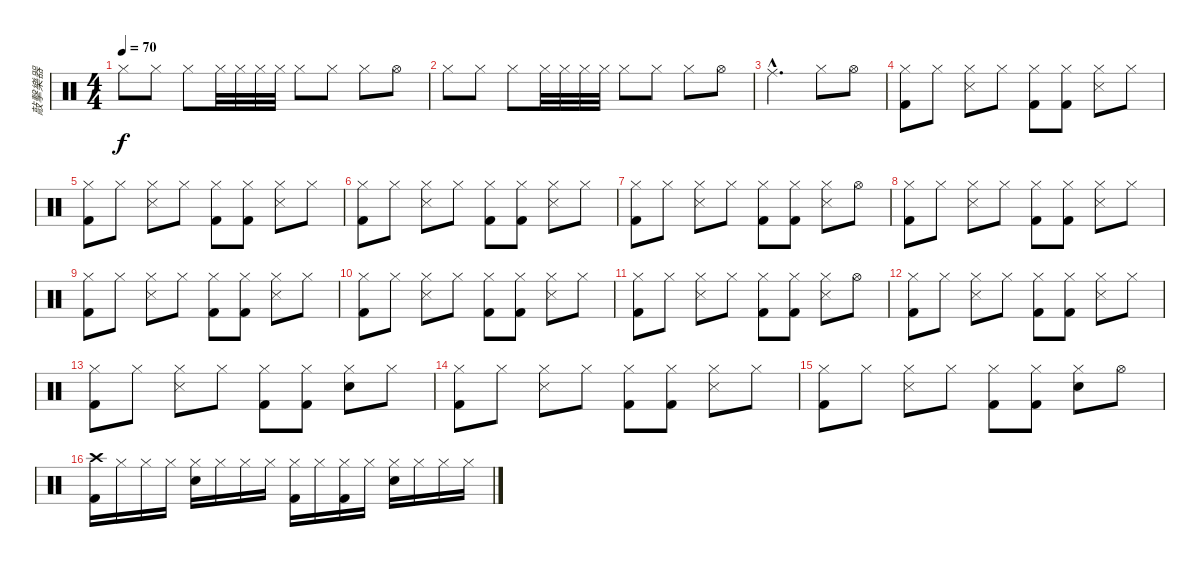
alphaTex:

\track ("敲擊樂器" "敲擊樂器") {instrument percussion}
\staff {score}
\articulation defaults
\ts (4 4)
\tempo 70
\clef neutral
\ks c "Hi-Hat (closed)".8{dy f} "Hi-Hat (closed)".8 "Hi-Hat (closed)".8 "Hi-Hat (closed)".32 "Hi-Hat (closed)".32 "Hi-Hat (closed)".32 "Hi-Hat (closed)".32 "Hi-Hat (closed)".8 "Hi-Hat (closed)".8 "Hi-Hat (closed)".8 "Hi-Hat (open)".8
|
"Hi-Hat (closed)".8 "Hi-Hat (closed)".8 "Hi-Hat (closed)".8 "Hi-Hat (closed)".32 "Hi-Hat (closed)".32 "Hi-Hat (closed)".32 "Hi-Hat (closed)".32 "Hi-Hat (closed)".8 "Hi-Hat (closed)".8 "Hi-Hat (closed)".8 "Hi-Hat (open)".8 |
"Ride (middle)"{hac}.2{d} "Hi-Hat (closed)".8 "Hi-Hat (open)".8 |
("Hi-Hat (closed)" "Kick (hit) 2").8 "Hi-Hat (closed)".8 ("Hi-Hat (closed)" "Snare (side stick) 3").8 "Hi-Hat (closed)".8 ("Hi-Hat (closed)" "Kick (hit) 2").8 ("Hi-Hat (closed)" "Kick (hit) 2").8 ("Hi-Hat (closed)" "Snare (side stick) 3").8 "Hi-Hat (closed)".8 |
("Hi-Hat (closed)" "Kick (hit) 2").8 "Hi-Hat (closed)".8 ("Hi-Hat (closed)" "Snare (side stick) 3").8 "Hi-Hat (closed)".8 ("Hi-Hat (closed)" "Kick (hit) 2").8 ("Hi-Hat (closed)" "Kick (hit) 2").8 ("Hi-Hat (closed)" "Snare (side stick) 3").8 "Hi-Hat (closed)".8 |
("Hi-Hat (closed)" "Kick (hit) 2").8 "Hi-Hat (closed)".8 ("Hi-Hat (closed)" "Snare (side stick) 3").8 "Hi-Hat (closed)".8 ("Hi-Hat (closed)" "Kick (hit) 2").8 ("Hi-Hat (closed)" "Kick (hit) 2").8 ("Hi-Hat (closed)" "Snare (side stick) 3").8 "Hi-Hat (closed)".8 |
("Hi-Hat (closed)" "Kick (hit) 2").8 "Hi-Hat (closed)".8 ("Hi-Hat (closed)" "Snare (side stick) 3").8 "Hi-Hat (closed)".8 ("Hi-Hat (closed)" "Kick (hit) 2").8 ("Hi-Hat (closed)" "Kick (hit) 2").8 ("Hi-Hat (closed)" "Snare (side stick) 3").8 "Hi-Hat (open)".8 |
("Hi-Hat (closed)" "Kick (hit) 2").8 "Hi-Hat (closed)".8 ("Hi-Hat (closed)" "Snare (side stick) 3").8 "Hi-Hat (closed)".8 ("Hi-Hat (closed)" "Kick (hit) 2").8 ("Hi-Hat (closed)" "Kick (hit) 2").8 ("Hi-Hat (closed)" "Snare (side stick) 3").8 "Hi-Hat (closed)".8 |
("Hi-Hat (closed)" "Kick (hit) 2").8 "Hi-Hat (closed)".8 ("Hi-Hat (closed)" "Snare (side stick) 3").8 "Hi-Hat (closed)".8 ("Hi-Hat (closed)" "Kick (hit) 2").8 ("Hi-Hat (closed)" "Kick (hit) 2").8 ("Hi-Hat (closed)" "Snare (side stick) 3").8 "Hi-Hat (closed)".8 |
("Hi-Hat (closed)" "Kick (hit) 2").8 "Hi-Hat (closed)".8 ("Hi-Hat (closed)" "Snare (side stick) 3").8 "Hi-Hat (closed)".8 ("Hi-Hat (closed)" "Kick (hit) 2").8 ("Hi-Hat (closed)" "Kick (hit) 2").8 ("Hi-Hat (closed)" "Snare (side stick) 3").8 "Hi-Hat (closed)".8 |
("Hi-Hat (closed)" "Kick (hit) 2").8 "Hi-Hat (closed)".8 ("Hi-Hat (closed)" "Snare (side stick) 3").8 "Hi-Hat (closed)".8 ("Hi-Hat (closed)" "Kick (hit) 2").8 ("Hi-Hat (closed)" "Kick (hit) 2").8 ("Hi-Hat (closed)" "Snare (side stick) 3").8 "Hi-Hat (open)".8 |
("Hi-Hat (closed)" "Kick (hit) 2").8 "Hi-Hat (closed)".8 ("Hi-Hat (closed)" "Snare (side stick) 3").8 "Hi-Hat (closed)".8 ("Hi-Hat (closed)" "Kick (hit) 2").8 ("Hi-Hat (closed)" "Kick (hit) 2").8 ("Hi-Hat (closed)" "Snare (side stick) 3").8 "Hi-Hat (closed)".8 |
("Hi-Hat (closed)" "Kick (hit) 2").8 "Hi-Hat (closed)".8 ("Hi-Hat (closed)" "Snare (side stick) 3").8 "Hi-Hat (closed)".8 ("Hi-Hat (closed)" "Kick (hit) 2").8 ("Hi-Hat (closed)" "Kick (hit) 2").8 ("Hi-Hat (closed)" "Snare (hit) 2").8 "Hi-Hat (closed)".8 |
("Hi-Hat (closed)" "Kick (hit) 2").8 "Hi-Hat (closed)".8 ("Hi-Hat (closed)" "Snare (side stick) 3").8 "Hi-Hat (closed)".8 ("Hi-Hat (closed)" "Kick (hit) 2").8 ("Hi-Hat (closed)" "Kick (hit) 2").8 ("Hi-Hat (closed)" "Snare (side stick) 3").8 "Hi-Hat (closed)".8 |
("Hi-Hat (closed)" "Kick (hit) 2").8 "Hi-Hat (closed)".8 ("Hi-Hat (closed)" "Snare (side stick) 3").8 "Hi-Hat (closed)".8 ("Hi-Hat (closed)" "Kick (hit) 2").8 ("Hi-Hat (closed)" "Kick (hit) 2").8 ("Hi-Hat (closed)" "Snare (hit) 2").8 "Hi-Hat (open)".8 |
("Crash high (hit)" "Kick (hit) 2").16 "Hi-Hat (closed)".16 "Hi-Hat (closed)".16 "Hi-Hat (closed)".16 ("Hi-Hat (closed)" "Snare (hit) 2").16 "Hi-Hat (closed)".16 "Hi-Hat (closed)".16 "Hi-Hat (closed)".16 ("Hi-Hat (closed)" "Kick (hit) 2").16 "Hi-Hat (closed)".16 ("Hi-Hat (closed)" "Kick (hit) 2").16 "Hi-Hat (closed)".16 ("Hi-Hat (closed)" "Snare (hit) 2").16 "Hi-Hat (closed)".16 "Hi-Hat (closed)".16 "Hi-Hat (closed)".16
